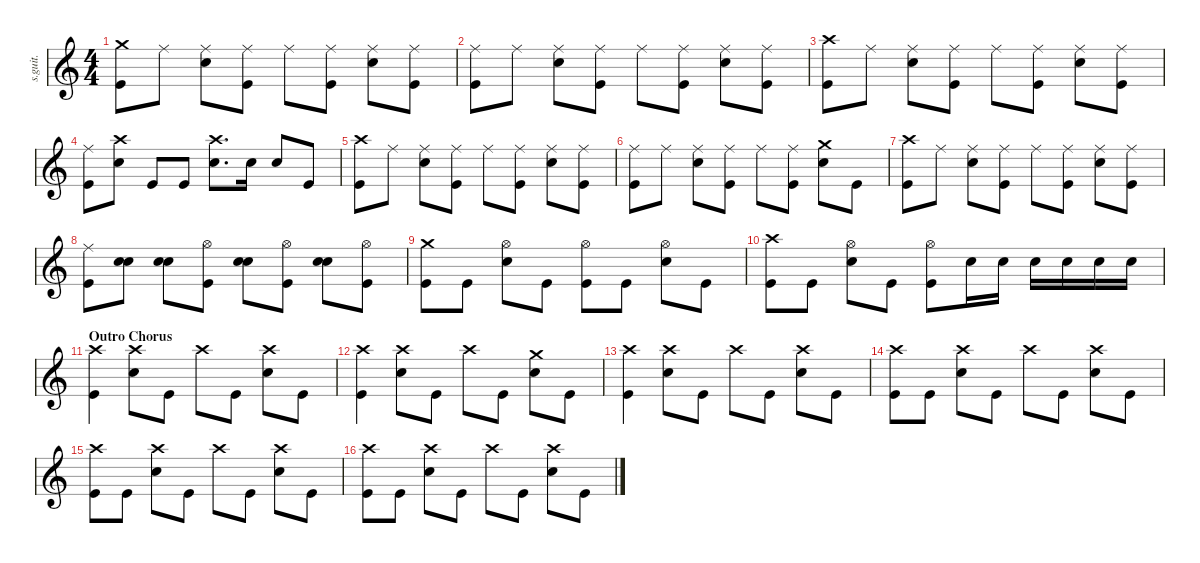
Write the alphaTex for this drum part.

\defaultSystemsLayout 4
\hideDynamics
\bracketExtendMode nobrackets
\track ("Dave Grohl" "s.guit.") {instrument percussion}
\staff {score}
\articulation defaults
\ts (4 4)
\tempo (136 hide)
\clef g2
\ks c
("Crash medium (hit)" "Kick (hit)").8{dy f} "Ride (middle)".8{dy ppp} ("Ride (middle)" "Snare (hit) 2").8{dy f} ("Ride (middle)" "Kick (hit)").8 "Ride (middle)".8 ("Ride (middle)" "Kick (hit)").8 ("Ride (middle)" "Snare (hit) 2").8 ("Ride (middle)" "Kick (hit)").8 |
("Ride (middle)" "Kick (hit)").8 "Ride (middle)".8{dy ppp} ("Ride (middle)" "Snare (hit) 2").8{dy f} ("Ride (middle)" "Kick (hit)").8 "Ride (middle)".8 ("Ride (middle)" "Kick (hit)").8 ("Ride (middle)" "Snare (hit) 2").8 ("Ride (middle)" "Kick (hit)").8 |
("Crash high (hit)" "Kick (hit)").8 "Ride (middle)".8{dy ppp} ("Ride (middle)" "Snare (hit) 2").8{dy f} ("Ride (middle)" "Kick (hit)").8 "Ride (middle)".8 ("Ride (middle)" "Kick (hit)").8 ("Ride (middle)" "Snare (hit) 2").8 ("Ride (middle)" "Kick (hit)").8 |
("Ride (middle)" "Kick (hit)").8 ("Crash high (hit)" "Snare (hit) 2").8 "Kick (hit)".8 "Kick (hit)".8 ("Crash high (hit)" "Snare (hit) 2").8{d} "Snare (hit) 2".16 "Snare (hit) 2".8 "Kick (hit)".8 |
("Crash high (hit)" "Kick (hit)").8 "Ride (middle)".8{dy ppp} ("Ride (middle)" "Snare (hit) 2").8{dy f} ("Ride (middle)" "Kick (hit)").8 "Ride (middle)".8 ("Ride (middle)" "Kick (hit)").8 ("Ride (middle)" "Snare (hit) 2").8 ("Ride (middle)" "Kick (hit)").8 |
("Ride (middle)" "Kick (hit)").8 "Ride (middle)".8{dy ppp} ("Ride (middle)" "Snare (hit) 2").8{dy f} ("Ride (middle)" "Kick (hit)").8 "Ride (middle)".8 ("Ride (middle)" "Kick (hit)").8 ("Crash medium (hit)" "Snare (hit) 2").8 "Kick (hit)".8 |
("Crash high (hit)" "Kick (hit)").8 "Ride (middle)".8{dy ppp} ("Ride (middle)" "Snare (hit) 2").8{dy f} ("Ride (middle)" "Kick (hit)").8 "Ride (middle)".8 ("Ride (middle)" "Kick (hit)").8 ("Ride (middle)" "Snare (hit) 2").8 ("Ride (middle)" "Kick (hit)").8 |
("Ride (middle)" "Kick (hit)").8 ("Snare (hit) 2" "Snare (hit) 2").8{bd 30} ("Snare (hit) 2" "Snare (hit) 2").8{bd 30} ("Hi-Hat (open)" "Kick (hit)").8 ("Snare (hit) 2" "Snare (hit) 2").8{bd 30} ("Hi-Hat (open)" "Kick (hit)").8 ("Snare (hit) 2" "Snare (hit) 2").8{bd 30} ("Hi-Hat (open)" "Kick (hit)").8 |
("Crash medium (hit)" "Kick (hit)").8 "Kick (hit)".8 ("Hi-Hat (open)" "Snare (hit) 2").8 "Kick (hit)".8 ("Hi-Hat (open)" "Kick (hit)").8 "Kick (hit)".8 ("Hi-Hat (open)" "Snare (hit) 2").8 "Kick (hit)".8 |
("Crash high (hit)" "Kick (hit)").8 "Kick (hit)".8 ("Hi-Hat (open)" "Snare (hit) 2").8 "Kick (hit)".8 ("Hi-Hat (open)" "Kick (hit)").8 "Snare (hit) 2".16 "Snare (hit) 2".16 "Snare (hit) 2".16 "Snare (hit) 2".16 "Snare (hit) 2".16 "Snare (hit) 2".16 |
\section ("" "Outro Chorus ")
("Crash high (hit)" "Kick (hit)").4 ("Crash high (hit)" "Snare (hit) 2").8 "Kick (hit)".8 "Crash high (hit)".8 "Kick (hit)".8 ("Crash high (hit)" "Snare (hit) 2").8 "Kick (hit)".8 |
("Crash high (hit)" "Kick (hit)").4 ("Crash high (hit)" "Snare (hit) 2").8 "Kick (hit)".8 "Crash high (hit)".8 "Kick (hit)".8 ("Crash medium (hit)" "Snare (hit) 2").8 "Kick (hit)".8 |
("Crash high (hit)" "Kick (hit)").4 ("Crash high (hit)" "Snare (hit) 2").8 "Kick (hit)".8 "Crash high (hit)".8 "Kick (hit)".8 ("Crash high (hit)" "Snare (hit) 2").8 "Kick (hit)".8 |
("Crash high (hit)" "Kick (hit)").8 "Kick (hit)".8 ("Crash high (hit)" "Snare (hit) 2").8 "Kick (hit)".8 "Crash high (hit)".8 "Kick (hit)".8 ("Crash high (hit)" "Snare (hit) 2").8 "Kick (hit)".8 |
("Crash high (hit)" "Kick (hit)").8 "Kick (hit)".8 ("Crash high (hit)" "Snare (hit) 2").8 "Kick (hit)".8 "Crash high (hit)".8 "Kick (hit)".8 ("Crash high (hit)" "Snare (hit) 2").8 "Kick (hit)".8 |
("Crash high (hit)" "Kick (hit)").8 "Kick (hit)".8 ("Crash high (hit)" "Snare (hit) 2").8 "Kick (hit)".8 "Crash high (hit)".8 "Kick (hit)".8 ("Crash high (hit)" "Snare (hit) 2").8 "Kick (hit)".8
